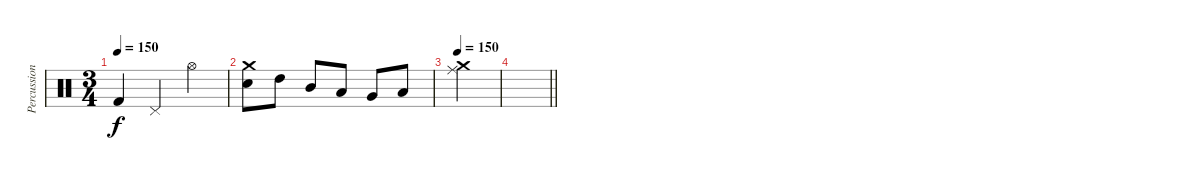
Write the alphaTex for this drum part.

\track ("Percussion" "Percussion") {instrument percussion}
\staff {score}
\articulation defaults
\ts (3 4)
\tempo 150
\clef neutral
\ks c "Kick (hit) 2".4{dy f} "Pedal Hi-Hat (hit)".4 "Hi-Hat (open)".4
|
("Snare (hit) 2" "Crash medium (hit)").8 "High Tom (hit)".8 "Mid Tom (hit)".8 "Low Tom (hit)".8 "Very Low Tom (hit)".8 "Low Floor Tom (hit)".8 |
\tempo 150
("Crash medium (hit)" "Ride (middle)").4 |
\barLineRight lightlight
